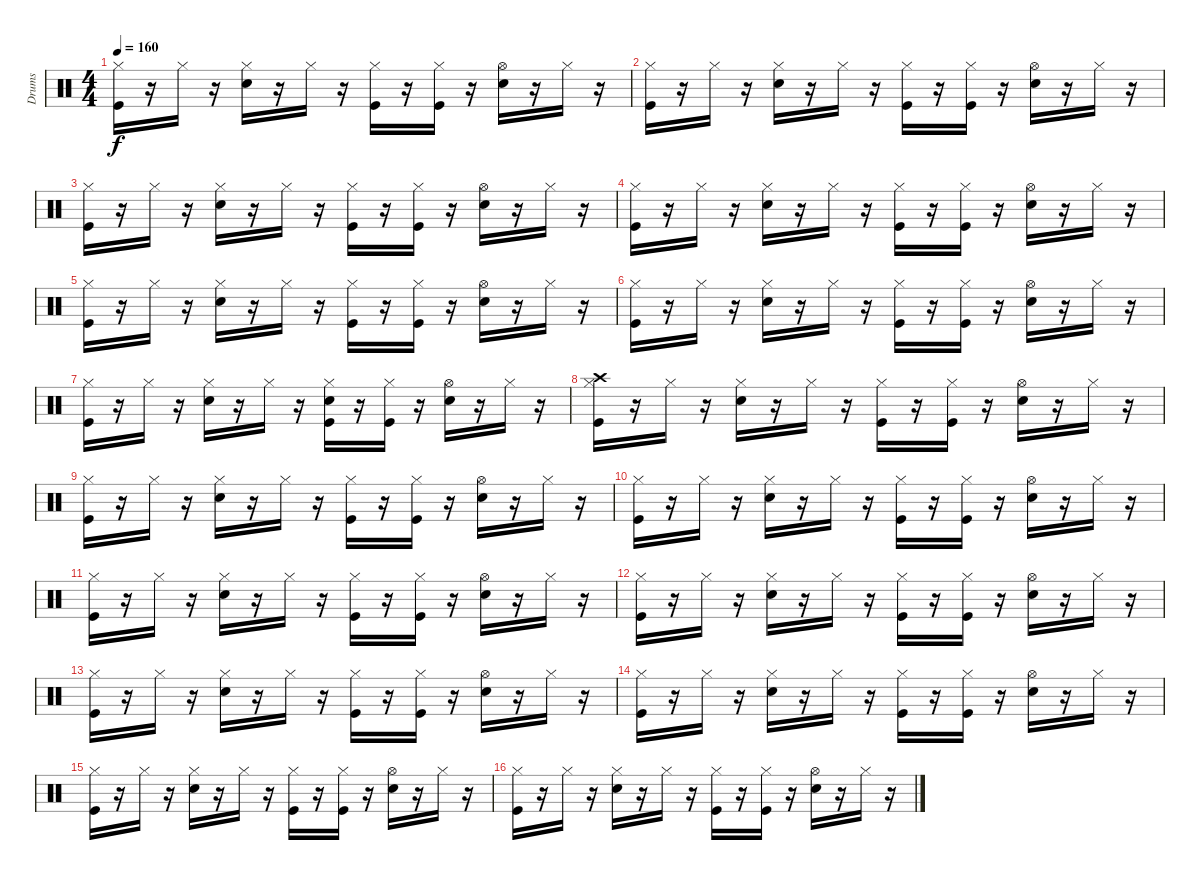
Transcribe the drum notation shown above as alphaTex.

\track ("Drums" "Drums") {instrument percussion}
\staff {score}
\articulation defaults
\ts (4 4)
\tempo 160
\clef neutral
\ks c
("Hi-Hat (closed)" "Kick (hit)").16{dy f} r.16 "Hi-Hat (closed)".16 r.16 ("Hi-Hat (closed)" "Snare (hit) 2").16 r.16 "Hi-Hat (closed)".16 r.16 ("Hi-Hat (closed)" "Kick (hit)").16 r.16 ("Kick (hit)" "Hi-Hat (closed)").16 r.16 ("Hi-Hat (open)" "Snare (hit) 2").16 r.16 "Hi-Hat (closed)".16 r.16 |
("Hi-Hat (closed)" "Kick (hit)").16 r.16 "Hi-Hat (closed)".16 r.16 ("Hi-Hat (closed)" "Snare (hit) 2").16 r.16 "Hi-Hat (closed)".16 r.16 ("Hi-Hat (closed)" "Kick (hit)").16 r.16 ("Kick (hit)" "Hi-Hat (closed)").16 r.16 ("Hi-Hat (open)" "Snare (hit) 2").16 r.16 "Hi-Hat (closed)".16 r.16 |
("Hi-Hat (closed)" "Kick (hit)").16 r.16 "Hi-Hat (closed)".16 r.16 ("Hi-Hat (closed)" "Snare (hit) 2").16 r.16 "Hi-Hat (closed)".16 r.16 ("Hi-Hat (closed)" "Kick (hit)").16 r.16 ("Kick (hit)" "Hi-Hat (closed)").16 r.16 ("Hi-Hat (open)" "Snare (hit) 2").16 r.16 "Hi-Hat (closed)".16 r.16 |
("Hi-Hat (closed)" "Kick (hit)").16 r.16 "Hi-Hat (closed)".16 r.16 ("Hi-Hat (closed)" "Snare (hit) 2").16 r.16 "Hi-Hat (closed)".16 r.16 ("Hi-Hat (closed)" "Kick (hit)").16 r.16 ("Kick (hit)" "Hi-Hat (closed)").16 r.16 ("Hi-Hat (open)" "Snare (hit) 2").16 r.16 "Hi-Hat (closed)".16 r.16 |
("Hi-Hat (closed)" "Kick (hit)").16 r.16 "Hi-Hat (closed)".16 r.16 ("Hi-Hat (closed)" "Snare (hit) 2").16 r.16 "Hi-Hat (closed)".16 r.16 ("Hi-Hat (closed)" "Kick (hit)").16 r.16 ("Kick (hit)" "Hi-Hat (closed)").16 r.16 ("Hi-Hat (open)" "Snare (hit) 2").16 r.16 "Hi-Hat (closed)".16 r.16 |
("Hi-Hat (closed)" "Kick (hit)").16 r.16 "Hi-Hat (closed)".16 r.16 ("Hi-Hat (closed)" "Snare (hit) 2").16 r.16 "Hi-Hat (closed)".16 r.16 ("Hi-Hat (closed)" "Kick (hit)").16 r.16 ("Kick (hit)" "Hi-Hat (closed)").16 r.16 ("Hi-Hat (open)" "Snare (hit) 2").16 r.16 "Hi-Hat (closed)".16 r.16 |
("Hi-Hat (closed)" "Kick (hit)").16 r.16 "Hi-Hat (closed)".16 r.16 ("Hi-Hat (closed)" "Snare (hit) 2").16 r.16 "Hi-Hat (closed)".16 r.16 ("Snare (hit) 2" "Hi-Hat (closed)" "Kick (hit)").16 r.16 ("Kick (hit)" "Hi-Hat (closed)").16 r.16 ("Hi-Hat (open)" "Snare (hit) 2").16 r.16 "Hi-Hat (closed)".16 r.16 |
("Crash high (hit)" "Hi-Hat (closed)" "Kick (hit)").16 r.16 "Hi-Hat (closed)".16 r.16 ("Hi-Hat (closed)" "Snare (hit) 2").16 r.16 "Hi-Hat (closed)".16 r.16 ("Hi-Hat (closed)" "Kick (hit)").16 r.16 ("Kick (hit)" "Hi-Hat (closed)").16 r.16 ("Hi-Hat (open)" "Snare (hit) 2").16 r.16 "Hi-Hat (closed)".16 r.16 |
("Hi-Hat (closed)" "Kick (hit)").16 r.16 "Hi-Hat (closed)".16 r.16 ("Hi-Hat (closed)" "Snare (hit) 2").16 r.16 "Hi-Hat (closed)".16 r.16 ("Hi-Hat (closed)" "Kick (hit)").16 r.16 ("Kick (hit)" "Hi-Hat (closed)").16 r.16 ("Hi-Hat (open)" "Snare (hit) 2").16 r.16 "Hi-Hat (closed)".16 r.16 |
("Hi-Hat (closed)" "Kick (hit)").16 r.16 "Hi-Hat (closed)".16 r.16 ("Hi-Hat (closed)" "Snare (hit) 2").16 r.16 "Hi-Hat (closed)".16 r.16 ("Hi-Hat (closed)" "Kick (hit)").16 r.16 ("Kick (hit)" "Hi-Hat (closed)").16 r.16 ("Hi-Hat (open)" "Snare (hit) 2").16 r.16 "Hi-Hat (closed)".16 r.16 |
("Hi-Hat (closed)" "Kick (hit)").16 r.16 "Hi-Hat (closed)".16 r.16 ("Hi-Hat (closed)" "Snare (hit) 2").16 r.16 "Hi-Hat (closed)".16 r.16 ("Hi-Hat (closed)" "Kick (hit)").16 r.16 ("Kick (hit)" "Hi-Hat (closed)").16 r.16 ("Hi-Hat (open)" "Snare (hit) 2").16 r.16 "Hi-Hat (closed)".16 r.16 |
("Hi-Hat (closed)" "Kick (hit)").16 r.16 "Hi-Hat (closed)".16 r.16 ("Hi-Hat (closed)" "Snare (hit) 2").16 r.16 "Hi-Hat (closed)".16 r.16 ("Hi-Hat (closed)" "Kick (hit)").16 r.16 ("Kick (hit)" "Hi-Hat (closed)").16 r.16 ("Hi-Hat (open)" "Snare (hit) 2").16 r.16 "Hi-Hat (closed)".16 r.16 |
("Hi-Hat (closed)" "Kick (hit)").16 r.16 "Hi-Hat (closed)".16 r.16 ("Hi-Hat (closed)" "Snare (hit) 2").16 r.16 "Hi-Hat (closed)".16 r.16 ("Hi-Hat (closed)" "Kick (hit)").16 r.16 ("Kick (hit)" "Hi-Hat (closed)").16 r.16 ("Hi-Hat (open)" "Snare (hit) 2").16 r.16 "Hi-Hat (closed)".16 r.16 |
("Hi-Hat (closed)" "Kick (hit)").16 r.16 "Hi-Hat (closed)".16 r.16 ("Hi-Hat (closed)" "Snare (hit) 2").16 r.16 "Hi-Hat (closed)".16 r.16 ("Hi-Hat (closed)" "Kick (hit)").16 r.16 ("Kick (hit)" "Hi-Hat (closed)").16 r.16 ("Hi-Hat (open)" "Snare (hit) 2").16 r.16 "Hi-Hat (closed)".16 r.16 |
("Hi-Hat (closed)" "Kick (hit)").16 r.16 "Hi-Hat (closed)".16 r.16 ("Hi-Hat (closed)" "Snare (hit) 2").16 r.16 "Hi-Hat (closed)".16 r.16 ("Hi-Hat (closed)" "Kick (hit)").16 r.16 ("Kick (hit)" "Hi-Hat (closed)").16 r.16 ("Hi-Hat (open)" "Snare (hit) 2").16 r.16 "Hi-Hat (closed)".16 r.16 |
("Hi-Hat (closed)" "Kick (hit)").16 r.16 "Hi-Hat (closed)".16 r.16 ("Hi-Hat (closed)" "Snare (hit) 2").16 r.16 "Hi-Hat (closed)".16 r.16 ("Hi-Hat (closed)" "Kick (hit)").16 r.16 ("Kick (hit)" "Hi-Hat (closed)").16 r.16 ("Hi-Hat (open)" "Snare (hit) 2").16 r.16 "Hi-Hat (closed)".16 r.16
